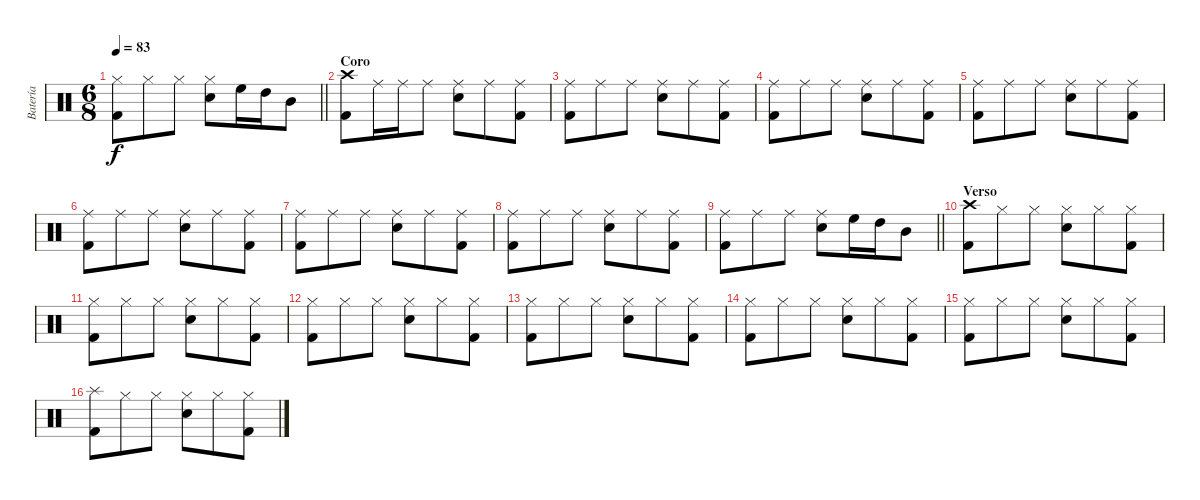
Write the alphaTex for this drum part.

\track ("Batería" "Batería") {instrument percussion}
\staff {score}
\articulation defaults
\ts (6 8)
\tempo 83
\clef neutral
\barLineRight lightlight
\ks c
("Hi-Hat (closed)" "Kick (hit) 2").8{dy f} "Hi-Hat (closed)".8 "Hi-Hat (closed)".8 ("Hi-Hat (closed)" "Electric Snare (hit)").8 "High Floor Tom (hit)".16 "High Tom (hit)".16 "Mid Tom (hit)".8 |
\section ("" "Coro")
("Crash high (hit)" "Kick (hit) 2").8 "Ride (middle)".16 "Ride (middle)".16 "Ride (middle)".8 ("Ride (middle)" "Electric Snare (hit)").8 "Ride (middle)".8 ("Ride (middle)" "Kick (hit) 2").8 |
("Ride (middle)" "Kick (hit) 2").8 "Ride (middle)".8 "Ride (middle)".8 ("Ride (middle)" "Electric Snare (hit)").8 "Ride (middle)".8 ("Ride (middle)" "Kick (hit) 2").8 |
("Ride (middle)" "Kick (hit) 2").8 "Ride (middle)".8 "Ride (middle)".8 ("Ride (middle)" "Electric Snare (hit)").8 "Ride (middle)".8 ("Ride (middle)" "Kick (hit) 2").8 |
("Ride (middle)" "Kick (hit) 2").8 "Ride (middle)".8 "Ride (middle)".8 ("Ride (middle)" "Electric Snare (hit)").8 "Ride (middle)".8 ("Ride (middle)" "Kick (hit) 2").8 |
("Ride (middle)" "Kick (hit) 2").8 "Ride (middle)".8 "Ride (middle)".8 ("Ride (middle)" "Electric Snare (hit)").8 "Ride (middle)".8 ("Ride (middle)" "Kick (hit) 2").8 |
("Ride (middle)" "Kick (hit) 2").8 "Ride (middle)".8 "Ride (middle)".8 ("Ride (middle)" "Electric Snare (hit)").8 "Ride (middle)".8 ("Ride (middle)" "Kick (hit) 2").8 |
("Ride (middle)" "Kick (hit) 2").8 "Ride (middle)".8 "Ride (middle)".8 ("Ride (middle)" "Electric Snare (hit)").8 "Ride (middle)".8 ("Ride (middle)" "Kick (hit) 2").8 |
\barLineRight lightlight
("Ride (middle)" "Kick (hit) 2").8 "Ride (middle)".8 "Ride (middle)".8 ("Ride (middle)" "Electric Snare (hit)").8 "High Floor Tom (hit)".16 "High Tom (hit)".16 "Mid Tom (hit)".8 |
\section ("" "Verso")
("Crash high (hit)" "Kick (hit) 2").8 "Hi-Hat (closed)".8 "Hi-Hat (closed)".8 ("Hi-Hat (closed)" "Electric Snare (hit)").8 "Hi-Hat (closed)".8 ("Hi-Hat (closed)" "Kick (hit) 2").8 |
("Hi-Hat (closed)" "Kick (hit) 2").8 "Hi-Hat (closed)".8 "Hi-Hat (closed)".8 ("Hi-Hat (closed)" "Electric Snare (hit)").8 "Hi-Hat (closed)".8 ("Hi-Hat (closed)" "Kick (hit) 2").8 |
("Hi-Hat (closed)" "Kick (hit) 2").8 "Hi-Hat (closed)".8 "Hi-Hat (closed)".8 ("Hi-Hat (closed)" "Electric Snare (hit)").8 "Hi-Hat (closed)".8 ("Hi-Hat (closed)" "Kick (hit) 2").8 |
("Hi-Hat (closed)" "Kick (hit) 2").8 "Hi-Hat (closed)".8 "Hi-Hat (closed)".8 ("Hi-Hat (closed)" "Electric Snare (hit)").8 "Hi-Hat (closed)".8 ("Hi-Hat (closed)" "Kick (hit) 2").8 |
("Hi-Hat (closed)" "Kick (hit) 2").8 "Hi-Hat (closed)".8 "Hi-Hat (closed)".8 ("Hi-Hat (closed)" "Electric Snare (hit)").8 "Hi-Hat (closed)".8 ("Hi-Hat (closed)" "Kick (hit) 2").8 |
("Hi-Hat (closed)" "Kick (hit) 2").8 "Hi-Hat (closed)".8 "Hi-Hat (closed)".8 ("Hi-Hat (closed)" "Electric Snare (hit)").8 "Hi-Hat (closed)".8 ("Hi-Hat (closed)" "Kick (hit) 2").8 |
("Splash (hit)" "Kick (hit) 2").8 "Hi-Hat (closed)".8 "Hi-Hat (closed)".8 ("Hi-Hat (closed)" "Electric Snare (hit)").8 "Hi-Hat (closed)".8 ("Hi-Hat (closed)" "Kick (hit) 2").8
